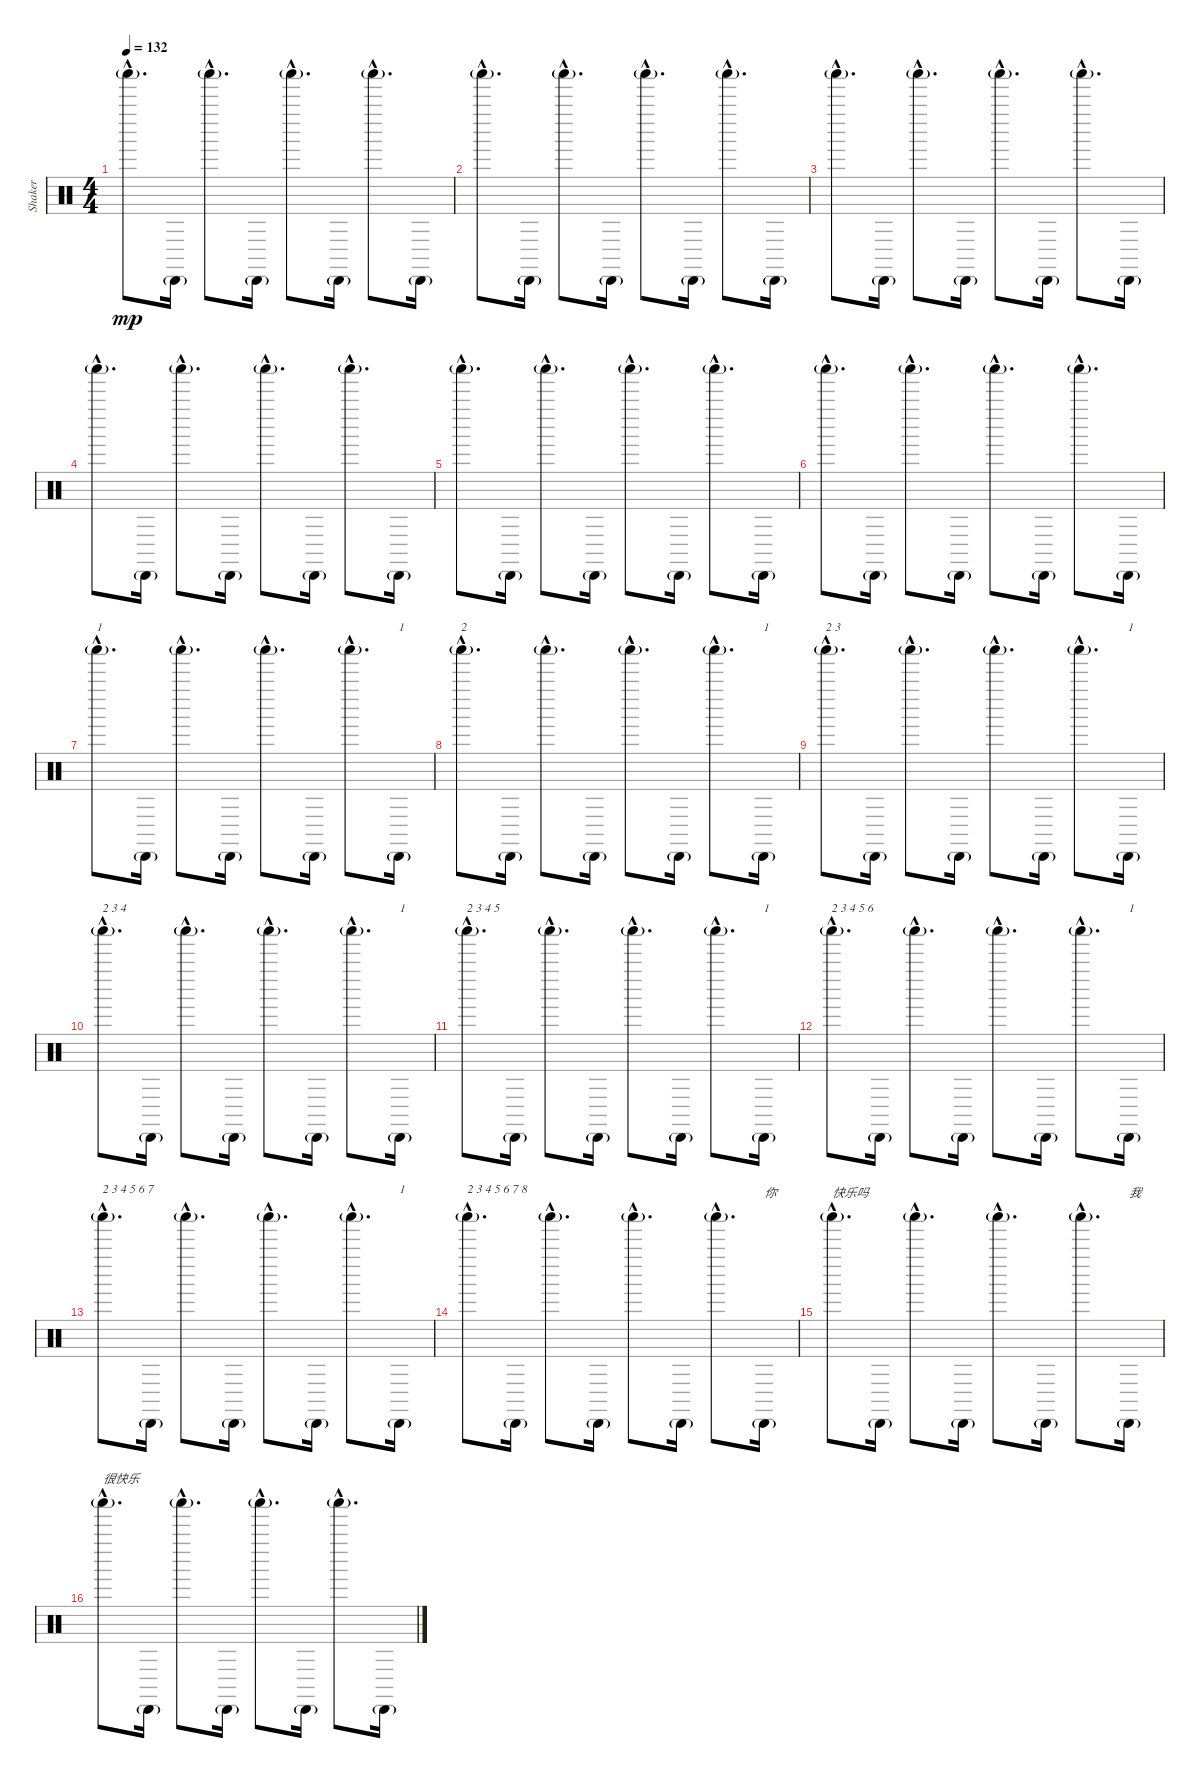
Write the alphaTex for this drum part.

\track ("Shaker" "Shaker") {instrument percussion}
\staff {score}
\articulation defaults
\ts (4 4)
\tempo 132
\clef neutral
\ks c "Shaker (hit)"{g hac}.8{d dy mp} "Cabasa (hit)"{g}.16 "Shaker (hit)"{g hac}.8{d} "Cabasa (hit)"{g}.16 "Shaker (hit)"{g hac}.8{d} "Cabasa (hit)"{g}.16 "Shaker (hit)"{g hac}.8{d} "Cabasa (hit)"{g}.16
|
"Shaker (hit)"{g hac}.8{d} "Cabasa (hit)"{g}.16 "Shaker (hit)"{g hac}.8{d} "Cabasa (hit)"{g}.16 "Shaker (hit)"{g hac}.8{d} "Cabasa (hit)"{g}.16 "Shaker (hit)"{g hac}.8{d} "Cabasa (hit)"{g}.16 |
"Shaker (hit)"{g hac}.8{d} "Cabasa (hit)"{g}.16 "Shaker (hit)"{g hac}.8{d} "Cabasa (hit)"{g}.16 "Shaker (hit)"{g hac}.8{d} "Cabasa (hit)"{g}.16 "Shaker (hit)"{g hac}.8{d} "Cabasa (hit)"{g}.16 |
"Shaker (hit)"{g hac}.8{d} "Cabasa (hit)"{g}.16 "Shaker (hit)"{g hac}.8{d} "Cabasa (hit)"{g}.16 "Shaker (hit)"{g hac}.8{d} "Cabasa (hit)"{g}.16 "Shaker (hit)"{g hac}.8{d} "Cabasa (hit)"{g}.16 |
"Shaker (hit)"{g hac}.8{d} "Cabasa (hit)"{g}.16 "Shaker (hit)"{g hac}.8{d} "Cabasa (hit)"{g}.16 "Shaker (hit)"{g hac}.8{d} "Cabasa (hit)"{g}.16 "Shaker (hit)"{g hac}.8{d} "Cabasa (hit)"{g}.16 |
"Shaker (hit)"{g hac}.8{d} "Cabasa (hit)"{g}.16 "Shaker (hit)"{g hac}.8{d} "Cabasa (hit)"{g}.16 "Shaker (hit)"{g hac}.8{d} "Cabasa (hit)"{g}.16 "Shaker (hit)"{g hac}.8{d} "Cabasa (hit)"{g}.16 |
"Shaker (hit)"{g hac}.8{d txt "1"} "Cabasa (hit)"{g}.16 "Shaker (hit)"{g hac}.8{d} "Cabasa (hit)"{g}.16 "Shaker (hit)"{g hac}.8{d} "Cabasa (hit)"{g}.16 "Shaker (hit)"{g hac}.8{d} "Cabasa (hit)"{g}.16{txt "1"} |
"Shaker (hit)"{g hac}.8{d txt "2"} "Cabasa (hit)"{g}.16 "Shaker (hit)"{g hac}.8{d} "Cabasa (hit)"{g}.16 "Shaker (hit)"{g hac}.8{d} "Cabasa (hit)"{g}.16 "Shaker (hit)"{g hac}.8{d} "Cabasa (hit)"{g}.16{txt "1"} |
"Shaker (hit)"{g hac}.8{d txt "2 3"} "Cabasa (hit)"{g}.16 "Shaker (hit)"{g hac}.8{d} "Cabasa (hit)"{g}.16 "Shaker (hit)"{g hac}.8{d} "Cabasa (hit)"{g}.16 "Shaker (hit)"{g hac}.8{d} "Cabasa (hit)"{g}.16{txt "1"} |
"Shaker (hit)"{g hac}.8{d txt "2 3 4"} "Cabasa (hit)"{g}.16 "Shaker (hit)"{g hac}.8{d} "Cabasa (hit)"{g}.16 "Shaker (hit)"{g hac}.8{d} "Cabasa (hit)"{g}.16 "Shaker (hit)"{g hac}.8{d} "Cabasa (hit)"{g}.16{txt "1"} |
"Shaker (hit)"{g hac}.8{d txt "2 3 4 5 "} "Cabasa (hit)"{g}.16 "Shaker (hit)"{g hac}.8{d} "Cabasa (hit)"{g}.16 "Shaker (hit)"{g hac}.8{d} "Cabasa (hit)"{g}.16 "Shaker (hit)"{g hac}.8{d} "Cabasa (hit)"{g}.16{txt "1"} |
"Shaker (hit)"{g hac}.8{d txt "2 3 4 5 6"} "Cabasa (hit)"{g}.16 "Shaker (hit)"{g hac}.8{d} "Cabasa (hit)"{g}.16 "Shaker (hit)"{g hac}.8{d} "Cabasa (hit)"{g}.16 "Shaker (hit)"{g hac}.8{d} "Cabasa (hit)"{g}.16{txt "1"} |
"Shaker (hit)"{g hac}.8{d txt "2 3 4 5 6 7"} "Cabasa (hit)"{g}.16 "Shaker (hit)"{g hac}.8{d} "Cabasa (hit)"{g}.16 "Shaker (hit)"{g hac}.8{d} "Cabasa (hit)"{g}.16 "Shaker (hit)"{g hac}.8{d} "Cabasa (hit)"{g}.16{txt "1"} |
"Shaker (hit)"{g hac}.8{d txt "2 3 4 5 6 7 8"} "Cabasa (hit)"{g}.16 "Shaker (hit)"{g hac}.8{d} "Cabasa (hit)"{g}.16 "Shaker (hit)"{g hac}.8{d} "Cabasa (hit)"{g}.16 "Shaker (hit)"{g hac}.8{d} "Cabasa (hit)"{g}.16{txt "你"} |
"Shaker (hit)"{g hac}.8{d txt "快乐吗 "} "Cabasa (hit)"{g}.16 "Shaker (hit)"{g hac}.8{d} "Cabasa (hit)"{g}.16 "Shaker (hit)"{g hac}.8{d} "Cabasa (hit)"{g}.16 "Shaker (hit)"{g hac}.8{d} "Cabasa (hit)"{g}.16{txt "我"} |
"Shaker (hit)"{g hac}.8{d txt "很快乐"} "Cabasa (hit)"{g}.16 "Shaker (hit)"{g hac}.8{d} "Cabasa (hit)"{g}.16 "Shaker (hit)"{g hac}.8{d} "Cabasa (hit)"{g}.16 "Shaker (hit)"{g hac}.8{d} "Cabasa (hit)"{g}.16
